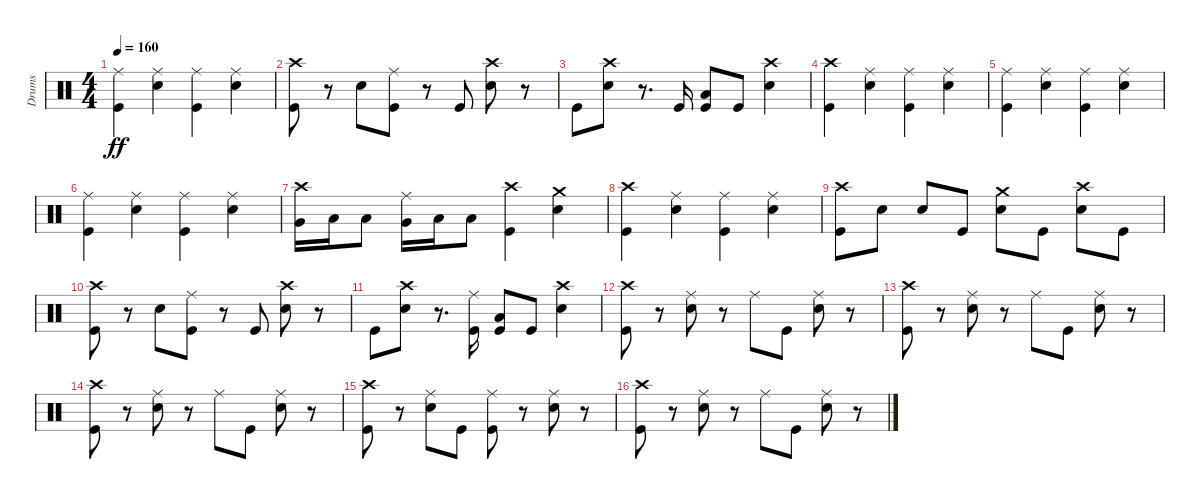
\track ("Drums" "Drums") {instrument percussion}
\staff {score}
\articulation defaults
\ts (4 4)
\tempo 160
\clef neutral
\ks c
("Ride (middle)" "Kick (hit)").4{dy ff} ("Ride (middle)" "Snare (hit) 2").4 ("Ride (middle)" "Kick (hit)").4 ("Ride (middle)" "Snare (hit) 2").4 |
("Crash high (hit)" "Kick (hit)").8 r.8 "Snare (hit) 2".8 ("Ride (middle)" "Kick (hit)").8 r.8 "Kick (hit)".8 ("Crash high (hit)" "Snare (hit) 2").8 r.8 |
"Kick (hit)".8 ("Crash high (hit)" "Snare (hit) 2").8 r.8{d} "Kick (hit)".16 ("Low Floor Tom (hit)" "Kick (hit)").8 "Kick (hit)".8 ("Crash high (hit)" "Snare (hit) 2").4 |
("Crash high (hit)" "Kick (hit)").4 ("Ride (middle)" "Snare (hit) 2").4 ("Ride (middle)" "Kick (hit)").4 ("Ride (middle)" "Snare (hit) 2").4 |
("Ride (middle)" "Kick (hit)").4 ("Ride (middle)" "Snare (hit) 2").4 ("Ride (middle)" "Kick (hit)").4 ("Ride (middle)" "Snare (hit) 2").4 |
("Ride (middle)" "Kick (hit)").4 ("Ride (middle)" "Snare (hit) 2").4 ("Ride (middle)" "Kick (hit)").4 ("Ride (middle)" "Snare (hit) 2").4 |
("Crash high (hit)" "Very Low Tom (hit)").16 "Low Floor Tom (hit)".16 "Low Floor Tom (hit)".8 ("Ride (middle)" "Very Low Tom (hit)").16 "Low Floor Tom (hit)".16 "Low Floor Tom (hit)".8 ("Crash high (hit)" "Kick (hit)").4 ("Crash medium (hit)" "Snare (hit) 2").4 |
("Crash high (hit)" "Kick (hit)").4 ("Ride (middle)" "Snare (hit) 2").4 ("Ride (middle)" "Kick (hit)").4 ("Ride (middle)" "Snare (hit) 2").4 |
("Crash high (hit)" "Kick (hit)").8 "Snare (hit) 2".8 "Snare (hit) 2".8 "Kick (hit)".8 ("Crash medium (hit)" "Snare (hit) 2").8 "Kick (hit)".8 ("Crash high (hit)" "Snare (hit) 2").8 "Kick (hit)".8 |
("Crash high (hit)" "Kick (hit)").8 r.8 "Snare (hit) 2".8 ("Ride (middle)" "Kick (hit)").8 r.8 "Kick (hit)".8 ("Crash high (hit)" "Snare (hit) 2").8 r.8 |
"Kick (hit)".8 ("Crash high (hit)" "Snare (hit) 2").8 r.8{d} ("Ride (middle)" "Kick (hit)").16 ("Low Floor Tom (hit)" "Kick (hit)").8 "Kick (hit)".8 ("Crash high (hit)" "Snare (hit) 2").4 |
("Crash high (hit)" "Kick (hit)").8 r.8 ("Ride (middle)" "Snare (hit) 2").8 r.8 "Ride (middle)".8 "Kick (hit)".8 ("Ride (middle)" "Snare (hit) 2").8 r.8 |
("Crash high (hit)" "Kick (hit)").8 r.8 ("Ride (middle)" "Snare (hit) 2").8 r.8 "Ride (middle)".8 "Kick (hit)".8 ("Ride (middle)" "Snare (hit) 2").8 r.8 |
("Crash high (hit)" "Kick (hit)").8 r.8 ("Ride (middle)" "Snare (hit) 2").8 r.8 "Ride (middle)".8 "Kick (hit)".8 ("Ride (middle)" "Snare (hit) 2").8 r.8 |
("Crash high (hit)" "Kick (hit)").8 r.8 ("Ride (middle)" "Snare (hit) 2").8 "Kick (hit)".8 ("Ride (middle)" "Kick (hit)").8 r.8 ("Ride (middle)" "Snare (hit) 2").8 r.8 |
("Crash high (hit)" "Kick (hit)").8 r.8 ("Ride (middle)" "Snare (hit) 2").8 r.8 "Ride (middle)".8 "Kick (hit)".8 ("Ride (middle)" "Snare (hit) 2").8 r.8
